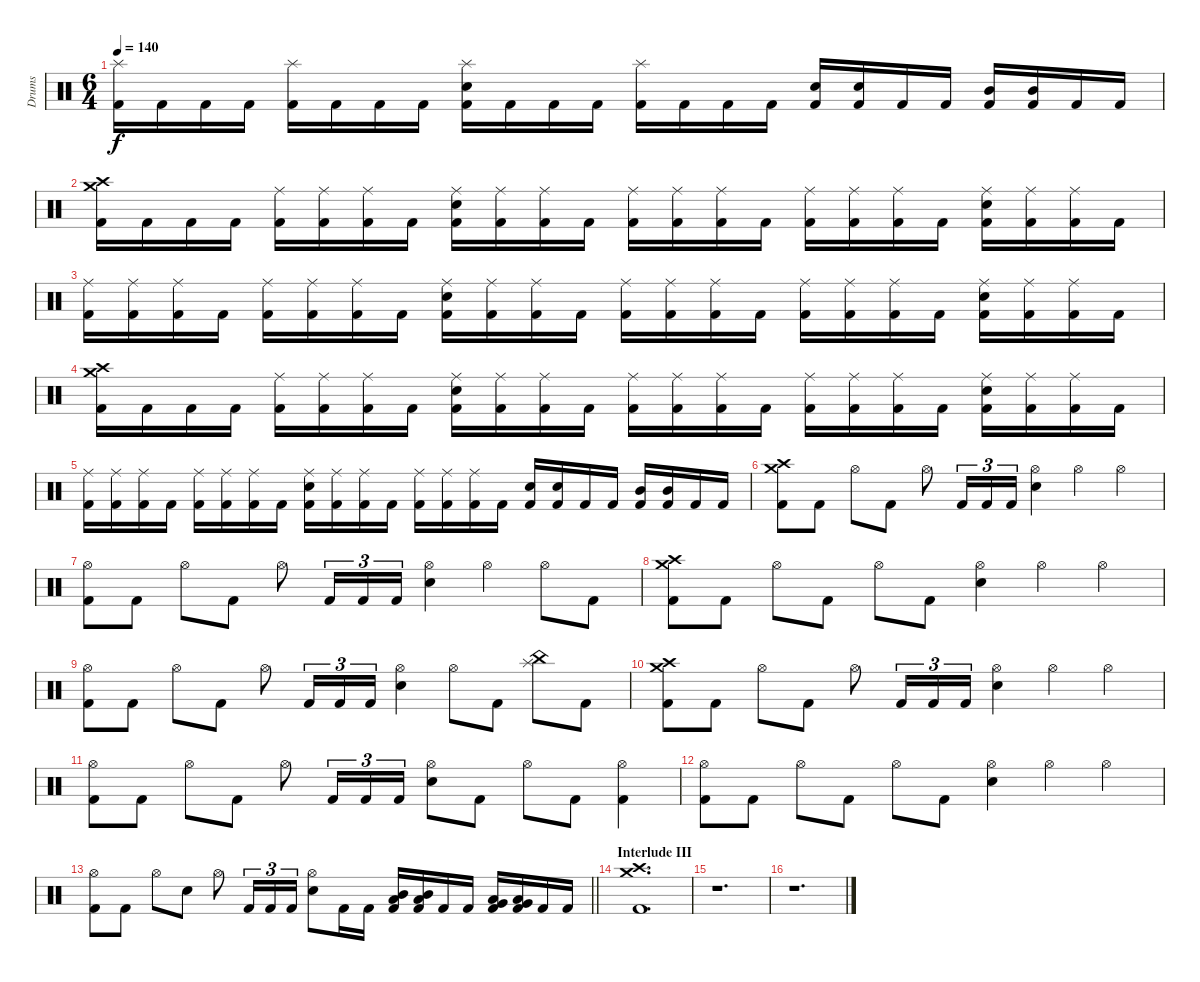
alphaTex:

\track ("Drums" "Drums") {instrument percussion}
\staff {score}
\articulation defaults
\ts (6 4)
\tempo 140
\clef neutral
\ks c
("Splash (hit)" "Kick (hit) 2").16{dy f} "Kick (hit) 2".16 "Kick (hit) 2".16 "Kick (hit) 2".16 ("Splash (hit)" "Kick (hit) 2").16 "Kick (hit) 2".16 "Kick (hit) 2".16 "Kick (hit) 2".16 ("Splash (hit)" "Electric Snare (hit)" "Kick (hit) 2").16 "Kick (hit) 2".16 "Kick (hit) 2".16 "Kick (hit) 2".16 ("Splash (hit)" "Kick (hit) 2").16 "Kick (hit) 2".16 "Kick (hit) 2".16 "Kick (hit) 2".16 ("Electric Snare (hit)" "Kick (hit) 2").16 ("Electric Snare (hit)" "Kick (hit) 2").16 "Kick (hit) 2".16 "Kick (hit) 2".16 ("Mid Tom (hit)" "Kick (hit) 2").16 ("Mid Tom (hit)" "Kick (hit) 2").16 "Kick (hit) 2".16 "Kick (hit) 2".16 |
("Crash medium (hit)" "Crash high (hit)" "Kick (hit) 2").16 "Kick (hit) 2".16 "Kick (hit) 2".16 "Kick (hit) 2".16 ("Ride (middle)" "Kick (hit) 2").16 ("Ride (middle)" "Kick (hit) 2").16 ("Ride (middle)" "Kick (hit) 2").16 "Kick (hit) 2".16 ("Ride (middle)" "Electric Snare (hit)" "Kick (hit) 2").16 ("Ride (middle)" "Kick (hit) 2").16 ("Ride (middle)" "Kick (hit) 2").16 "Kick (hit) 2".16 ("Ride (middle)" "Kick (hit) 2").16 ("Ride (middle)" "Kick (hit) 2").16 ("Ride (middle)" "Kick (hit) 2").16 "Kick (hit) 2".16 ("Ride (middle)" "Kick (hit) 2").16 ("Ride (middle)" "Kick (hit) 2").16 ("Ride (middle)" "Kick (hit) 2").16 "Kick (hit) 2".16 ("Ride (middle)" "Electric Snare (hit)" "Kick (hit) 2").16 ("Ride (middle)" "Kick (hit) 2").16 ("Ride (middle)" "Kick (hit) 2").16 "Kick (hit) 2".16 |
("Ride (middle)" "Kick (hit) 2").16 ("Ride (middle)" "Kick (hit) 2").16 ("Ride (middle)" "Kick (hit) 2").16 "Kick (hit) 2".16 ("Ride (middle)" "Kick (hit) 2").16 ("Ride (middle)" "Kick (hit) 2").16 ("Ride (middle)" "Kick (hit) 2").16 "Kick (hit) 2".16 ("Ride (middle)" "Electric Snare (hit)" "Kick (hit) 2").16 ("Ride (middle)" "Kick (hit) 2").16 ("Ride (middle)" "Kick (hit) 2").16 "Kick (hit) 2".16 ("Ride (middle)" "Kick (hit) 2").16 ("Ride (middle)" "Kick (hit) 2").16 ("Ride (middle)" "Kick (hit) 2").16 "Kick (hit) 2".16 ("Ride (middle)" "Kick (hit) 2").16 ("Ride (middle)" "Kick (hit) 2").16 ("Ride (middle)" "Kick (hit) 2").16 "Kick (hit) 2".16 ("Ride (middle)" "Electric Snare (hit)" "Kick (hit) 2").16 ("Ride (middle)" "Kick (hit) 2").16 ("Ride (middle)" "Kick (hit) 2").16 "Kick (hit) 2".16 |
("Crash medium (hit)" "Crash high (hit)" "Kick (hit) 2").16 "Kick (hit) 2".16 "Kick (hit) 2".16 "Kick (hit) 2".16 ("Ride (middle)" "Kick (hit) 2").16 ("Ride (middle)" "Kick (hit) 2").16 ("Ride (middle)" "Kick (hit) 2").16 "Kick (hit) 2".16 ("Ride (middle)" "Electric Snare (hit)" "Kick (hit) 2").16 ("Ride (middle)" "Kick (hit) 2").16 ("Ride (middle)" "Kick (hit) 2").16 "Kick (hit) 2".16 ("Ride (middle)" "Kick (hit) 2").16 ("Ride (middle)" "Kick (hit) 2").16 ("Ride (middle)" "Kick (hit) 2").16 "Kick (hit) 2".16 ("Ride (middle)" "Kick (hit) 2").16 ("Ride (middle)" "Kick (hit) 2").16 ("Ride (middle)" "Kick (hit) 2").16 "Kick (hit) 2".16 ("Ride (middle)" "Electric Snare (hit)" "Kick (hit) 2").16 ("Ride (middle)" "Kick (hit) 2").16 ("Ride (middle)" "Kick (hit) 2").16 "Kick (hit) 2".16 |
("Ride (middle)" "Kick (hit) 2").16 ("Ride (middle)" "Kick (hit) 2").16 ("Ride (middle)" "Kick (hit) 2").16 "Kick (hit) 2".16 ("Ride (middle)" "Kick (hit) 2").16 ("Ride (middle)" "Kick (hit) 2").16 ("Ride (middle)" "Kick (hit) 2").16 "Kick (hit) 2".16 ("Ride (middle)" "Electric Snare (hit)" "Kick (hit) 2").16 ("Ride (middle)" "Kick (hit) 2").16 ("Ride (middle)" "Kick (hit) 2").16 "Kick (hit) 2".16 ("Ride (middle)" "Kick (hit) 2").16 ("Ride (middle)" "Kick (hit) 2").16 ("Ride (middle)" "Kick (hit) 2").16 "Kick (hit) 2".16 ("Electric Snare (hit)" "Kick (hit) 2").16 ("Electric Snare (hit)" "Kick (hit) 2").16 "Kick (hit) 2".16 "Kick (hit) 2".16 ("Mid Tom (hit)" "Kick (hit) 2").16 ("Mid Tom (hit)" "Kick (hit) 2").16 "Kick (hit) 2".16 "Kick (hit) 2".16 |
("Crash medium (hit)" "Crash high (hit)" "Kick (hit) 2").8 "Kick (hit) 2".8 "Hi-Hat (open)".8 "Kick (hit) 2".8 "Hi-Hat (open)".8 "Kick (hit) 2".16{tu (3 2)} "Kick (hit) 2".16{tu (3 2)} "Kick (hit) 2".16{tu (3 2)} ("Hi-Hat (open)" "Electric Snare (hit)").4 "Hi-Hat (open)".4 "Hi-Hat (open)".4 |
("Hi-Hat (open)" "Kick (hit) 2").8 "Kick (hit) 2".8 "Hi-Hat (open)".8 "Kick (hit) 2".8 "Hi-Hat (open)".8 "Kick (hit) 2".16{tu (3 2)} "Kick (hit) 2".16{tu (3 2)} "Kick (hit) 2".16{tu (3 2)} ("Hi-Hat (open)" "Electric Snare (hit)").4 "Hi-Hat (open)".4 "Hi-Hat (open)".8 "Kick (hit) 2".8 |
("Crash medium (hit)" "Crash high (hit)" "Kick (hit) 2").8 "Kick (hit) 2".8 "Hi-Hat (open)".8 "Kick (hit) 2".8 "Hi-Hat (open)".8 "Kick (hit) 2".8 ("Hi-Hat (open)" "Electric Snare (hit)").4 "Hi-Hat (open)".4 "Hi-Hat (open)".4 |
("Hi-Hat (open)" "Kick (hit) 2").8 "Kick (hit) 2".8 "Hi-Hat (open)".8 "Kick (hit) 2".8 "Hi-Hat (open)".8 "Kick (hit) 2".16{tu (3 2)} "Kick (hit) 2".16{tu (3 2)} "Kick (hit) 2".16{tu (3 2)} ("Hi-Hat (open)" "Electric Snare (hit)").4 "Hi-Hat (open)".8 "Kick (hit) 2".8 ("China (hit)" "Splash (hit)").8 "Kick (hit) 2".8 |
("Crash medium (hit)" "Crash high (hit)" "Kick (hit) 2").8 "Kick (hit) 2".8 "Hi-Hat (open)".8 "Kick (hit) 2".8 "Hi-Hat (open)".8 "Kick (hit) 2".16{tu (3 2)} "Kick (hit) 2".16{tu (3 2)} "Kick (hit) 2".16{tu (3 2)} ("Hi-Hat (open)" "Electric Snare (hit)").4 "Hi-Hat (open)".4 "Hi-Hat (open)".4 |
("Hi-Hat (open)" "Kick (hit) 2").8 "Kick (hit) 2".8 "Hi-Hat (open)".8 "Kick (hit) 2".8 "Hi-Hat (open)".8 "Kick (hit) 2".16{tu (3 2)} "Kick (hit) 2".16{tu (3 2)} "Kick (hit) 2".16{tu (3 2)} ("Hi-Hat (open)" "Electric Snare (hit)").8 "Kick (hit) 2".8 "Hi-Hat (open)".8 "Kick (hit) 2".8 ("Hi-Hat (open)" "Kick (hit) 2").4 |
("Hi-Hat (open)" "Kick (hit) 2").8 "Kick (hit) 2".8 "Hi-Hat (open)".8 "Kick (hit) 2".8 "Hi-Hat (open)".8 "Kick (hit) 2".8 ("Hi-Hat (open)" "Electric Snare (hit)").4 "Hi-Hat (open)".4 "Hi-Hat (open)".4 |
\barLineRight lightlight
("Hi-Hat (open)" "Kick (hit) 2").8 "Kick (hit) 2".8 "Hi-Hat (open)".8 "Electric Snare (hit)".8 "Hi-Hat (open)".8 "Kick (hit) 2".16{tu (3 2)} "Kick (hit) 2".16{tu (3 2)} "Kick (hit) 2".16{tu (3 2)} ("Hi-Hat (open)" "Electric Snare (hit)").8 "Kick (hit) 2".16 "Kick (hit) 2".16 ("Mid Tom (hit)" "Low Tom (hit)" "Kick (hit) 2").16 ("Mid Tom (hit)" "Low Tom (hit)" "Kick (hit) 2").16 "Kick (hit) 2".16 "Kick (hit) 2".16 ("Low Tom (hit)" "Very Low Tom (hit)" "Kick (hit) 2").16 ("Low Tom (hit)" "Very Low Tom (hit)" "Kick (hit) 2").16 "Kick (hit) 2".16 "Kick (hit) 2".16 |
\section ("" "Interlude III")
("Crash medium (hit)" "Crash high (hit)" "Kick (hit) 2").1{d} |
r.1{d} |
r.1{d}
